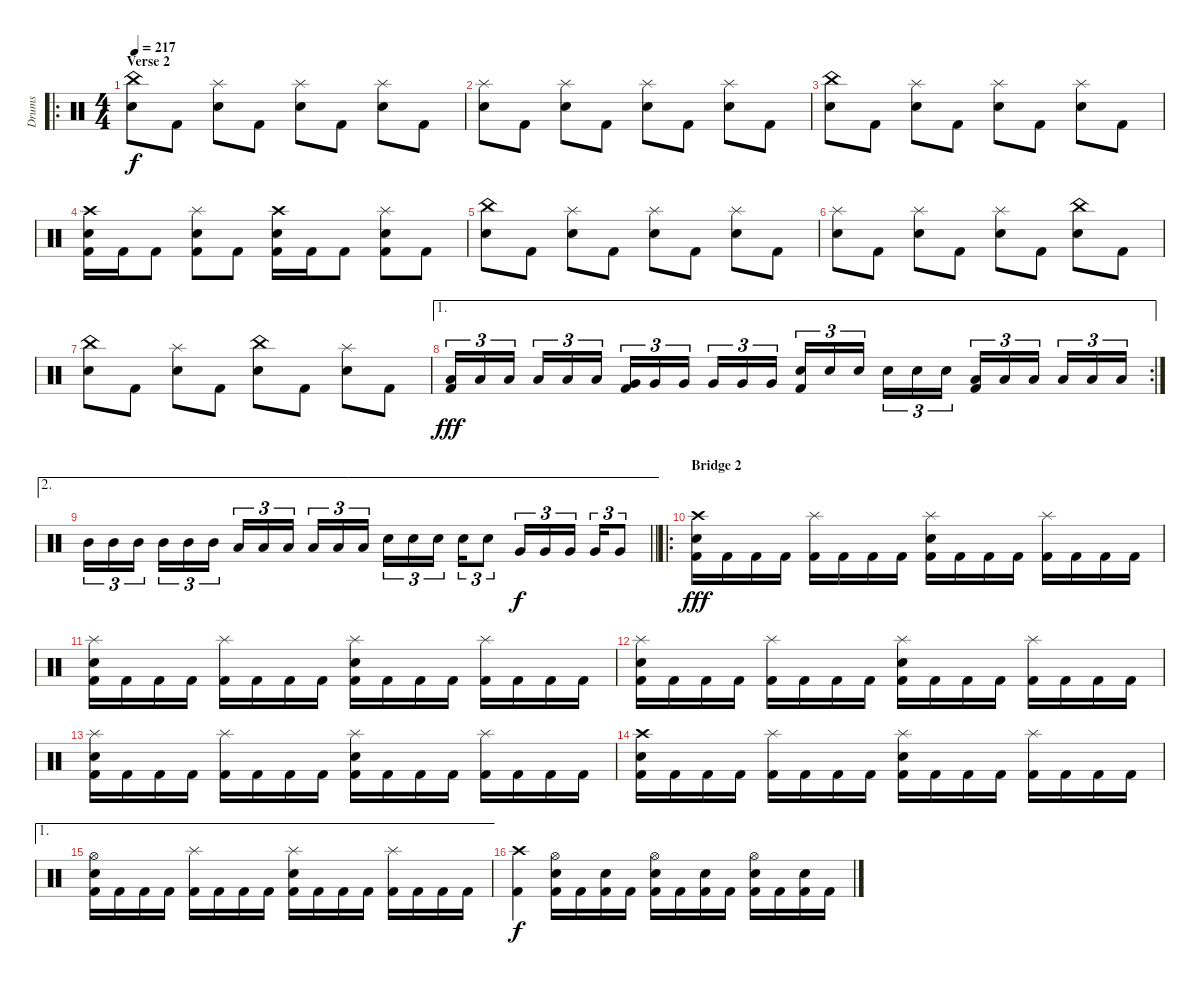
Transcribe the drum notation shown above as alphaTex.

\track ("Drums" "Drums") {instrument percussion}
\staff {score}
\articulation defaults
\ro
\ts (4 4)
\section ("" "Verse 2")
\tempo 217
\clef neutral
\ks c
("China (hit)" "Electric Snare (hit)").8{dy f} "Kick (hit) 2".8 ("Splash (hit)" "Electric Snare (hit)").8 "Kick (hit) 2".8 ("Splash (hit)" "Electric Snare (hit)").8 "Kick (hit) 2".8 ("Splash (hit)" "Electric Snare (hit)").8 "Kick (hit) 2".8 |
("Splash (hit)" "Electric Snare (hit)").8 "Kick (hit) 2".8 ("Splash (hit)" "Electric Snare (hit)").8 "Kick (hit) 2".8 ("Splash (hit)" "Electric Snare (hit)").8 "Kick (hit) 2".8 ("Splash (hit)" "Electric Snare (hit)").8 "Kick (hit) 2".8 |
("China (hit)" "Electric Snare (hit)").8 "Kick (hit) 2".8 ("Splash (hit)" "Electric Snare (hit)").8 "Kick (hit) 2".8 ("Splash (hit)" "Electric Snare (hit)").8 "Kick (hit) 2".8 ("Splash (hit)" "Electric Snare (hit)").8 "Kick (hit) 2".8 |
("Crash high (hit)" "Electric Snare (hit)" "Kick (hit) 2").16 "Kick (hit) 2".16 "Kick (hit) 2".8 ("Splash (hit)" "Electric Snare (hit)" "Kick (hit) 2").8 "Kick (hit) 2".8 ("Crash high (hit)" "Electric Snare (hit)" "Kick (hit) 2").16 "Kick (hit) 2".16 "Kick (hit) 2".8 ("Splash (hit)" "Electric Snare (hit)" "Kick (hit) 2").8 "Kick (hit) 2".8 |
("China (hit)" "Electric Snare (hit)").8 "Kick (hit) 2".8 ("Splash (hit)" "Electric Snare (hit)").8 "Kick (hit) 2".8 ("Splash (hit)" "Electric Snare (hit)").8 "Kick (hit) 2".8 ("Splash (hit)" "Electric Snare (hit)").8 "Kick (hit) 2".8 |
("Splash (hit)" "Electric Snare (hit)").8 "Kick (hit) 2".8 ("Splash (hit)" "Electric Snare (hit)").8 "Kick (hit) 2".8 ("Splash (hit)" "Electric Snare (hit)").8 "Kick (hit) 2".8 ("China (hit)" "Electric Snare (hit)").8 "Kick (hit) 2".8 |
("China (hit)" "Electric Snare (hit)").8 "Kick (hit) 2".8 ("Splash (hit)" "Electric Snare (hit)").8 "Kick (hit) 2".8 ("China (hit)" "Electric Snare (hit)").8 "Kick (hit) 2".8 ("Splash (hit)" "Electric Snare (hit)").8 "Kick (hit) 2".8 |
\ae 1
\rc 2
("Low Tom (hit)" "Kick (hit) 2").16{tu (3 2) dy fff} "Low Tom (hit)".16{tu (3 2)} "Low Tom (hit)".16{tu (3 2) beam splitsecondary} "Low Tom (hit)".16{tu (3 2)} "Low Tom (hit)".16{tu (3 2)} "Low Tom (hit)".16{tu (3 2)} ("Very Low Tom (hit)" "Kick (hit) 2").16{tu (3 2)} "Very Low Tom (hit)".16{tu (3 2)} "Very Low Tom (hit)".16{tu (3 2) beam splitsecondary} "Very Low Tom (hit)".16{tu (3 2)} "Very Low Tom (hit)".16{tu (3 2)} "Very Low Tom (hit)".16{tu (3 2)} ("Electric Snare (hit)" "Kick (hit) 2").16{tu (3 2)} "Electric Snare (hit)".16{tu (3 2)} "Electric Snare (hit)".16{tu (3 2) beam splitsecondary} "Electric Snare (hit)".16{tu (3 2)} "Electric Snare (hit)".16{tu (3 2)} "Electric Snare (hit)".16{tu (3 2)} ("Low Tom (hit)" "Kick (hit) 2").16{tu (3 2)} "Low Tom (hit)".16{tu (3 2)} "Low Tom (hit)".16{tu (3 2) beam splitsecondary} "Low Tom (hit)".16{tu (3 2)} "Low Tom (hit)".16{tu (3 2)} "Low Tom (hit)".16{tu (3 2)} |
\ae 2
\barLineRight lightlight "Mid Tom (hit)".16{tu (3 2)} "Mid Tom (hit)".16{tu (3 2)} "Mid Tom (hit)".16{tu (3 2) beam splitsecondary} "Mid Tom (hit)".16{tu (3 2)} "Mid Tom (hit)".16{tu (3 2)} "Mid Tom (hit)".16{tu (3 2)} "Low Tom (hit)".16{tu (3 2)} "Low Tom (hit)".16{tu (3 2)} "Low Tom (hit)".16{tu (3 2) beam splitsecondary} "Low Tom (hit)".16{tu (3 2)} "Low Tom (hit)".16{tu (3 2)} "Low Tom (hit)".16{tu (3 2)} "Electric Snare (hit)".16{tu (3 2)} "Electric Snare (hit)".16{tu (3 2)} "Electric Snare (hit)".16{tu (3 2) beam splitsecondary} "Electric Snare (hit)".16{tu (3 2)} "Electric Snare (hit)".8{tu (3 2)} "Very Low Tom (hit)".16{tu (3 2) dy f} "Very Low Tom (hit)".16{tu (3 2)} "Very Low Tom (hit)".16{tu (3 2) beam splitsecondary} "Very Low Tom (hit)".16{tu (3 2)} "Very Low Tom (hit)".8{tu (3 2)}
|
\ro
\section ("" "Bridge 2")
("Crash high (hit)" "Electric Snare (hit)" "Kick (hit) 2").16{dy fff} "Kick (hit) 2".16 "Kick (hit) 2".16 "Kick (hit) 2".16 ("Splash (hit)" "Kick (hit) 2").16 "Kick (hit) 2".16 "Kick (hit) 2".16 "Kick (hit) 2".16 ("Splash (hit)" "Electric Snare (hit)" "Kick (hit) 2").16 "Kick (hit) 2".16 "Kick (hit) 2".16 "Kick (hit) 2".16 ("Splash (hit)" "Kick (hit) 2").16 "Kick (hit) 2".16 "Kick (hit) 2".16 "Kick (hit) 2".16 |
("Splash (hit)" "Electric Snare (hit)" "Kick (hit) 2").16 "Kick (hit) 2".16 "Kick (hit) 2".16 "Kick (hit) 2".16 ("Splash (hit)" "Kick (hit) 2").16 "Kick (hit) 2".16 "Kick (hit) 2".16 "Kick (hit) 2".16 ("Splash (hit)" "Electric Snare (hit)" "Kick (hit) 2").16 "Kick (hit) 2".16 "Kick (hit) 2".16 "Kick (hit) 2".16 ("Splash (hit)" "Kick (hit) 2").16 "Kick (hit) 2".16 "Kick (hit) 2".16 "Kick (hit) 2".16 |
("Splash (hit)" "Electric Snare (hit)" "Kick (hit) 2").16 "Kick (hit) 2".16 "Kick (hit) 2".16 "Kick (hit) 2".16 ("Splash (hit)" "Kick (hit) 2").16 "Kick (hit) 2".16 "Kick (hit) 2".16 "Kick (hit) 2".16 ("Splash (hit)" "Electric Snare (hit)" "Kick (hit) 2").16 "Kick (hit) 2".16 "Kick (hit) 2".16 "Kick (hit) 2".16 ("Splash (hit)" "Kick (hit) 2").16 "Kick (hit) 2".16 "Kick (hit) 2".16 "Kick (hit) 2".16 |
("Splash (hit)" "Electric Snare (hit)" "Kick (hit) 2").16 "Kick (hit) 2".16 "Kick (hit) 2".16 "Kick (hit) 2".16 ("Splash (hit)" "Kick (hit) 2").16 "Kick (hit) 2".16 "Kick (hit) 2".16 "Kick (hit) 2".16 ("Splash (hit)" "Electric Snare (hit)" "Kick (hit) 2").16 "Kick (hit) 2".16 "Kick (hit) 2".16 "Kick (hit) 2".16 ("Splash (hit)" "Kick (hit) 2").16 "Kick (hit) 2".16 "Kick (hit) 2".16 "Kick (hit) 2".16 |
("Crash high (hit)" "Electric Snare (hit)" "Kick (hit) 2").16 "Kick (hit) 2".16 "Kick (hit) 2".16 "Kick (hit) 2".16 ("Splash (hit)" "Kick (hit) 2").16 "Kick (hit) 2".16 "Kick (hit) 2".16 "Kick (hit) 2".16 ("Splash (hit)" "Electric Snare (hit)" "Kick (hit) 2").16 "Kick (hit) 2".16 "Kick (hit) 2".16 "Kick (hit) 2".16 ("Splash (hit)" "Kick (hit) 2").16 "Kick (hit) 2".16 "Kick (hit) 2".16 "Kick (hit) 2".16 |
\ae 1
("Hi-Hat (open)" "Electric Snare (hit)" "Kick (hit) 2").16 "Kick (hit) 2".16 "Kick (hit) 2".16 "Kick (hit) 2".16 ("Splash (hit)" "Kick (hit) 2").16 "Kick (hit) 2".16 "Kick (hit) 2".16 "Kick (hit) 2".16 ("Splash (hit)" "Electric Snare (hit)" "Kick (hit) 2").16 "Kick (hit) 2".16 "Kick (hit) 2".16 "Kick (hit) 2".16 ("Splash (hit)" "Kick (hit) 2").16 "Kick (hit) 2".16 "Kick (hit) 2".16 "Kick (hit) 2".16 |
("Crash high (hit)" "Kick (hit) 2").4{dy f} ("Hi-Hat (open)" "Electric Snare (hit)" "Kick (hit) 2").16 "Kick (hit) 2".16 ("Electric Snare (hit)" "Kick (hit) 2").16 "Kick (hit) 2".16 ("Hi-Hat (open)" "Electric Snare (hit)" "Kick (hit) 2").16 "Kick (hit) 2".16 ("Electric Snare (hit)" "Kick (hit) 2").16 "Kick (hit) 2".16 ("Hi-Hat (open)" "Electric Snare (hit)" "Kick (hit) 2").16 "Kick (hit) 2".16 ("Electric Snare (hit)" "Kick (hit) 2").16 "Kick (hit) 2".16
